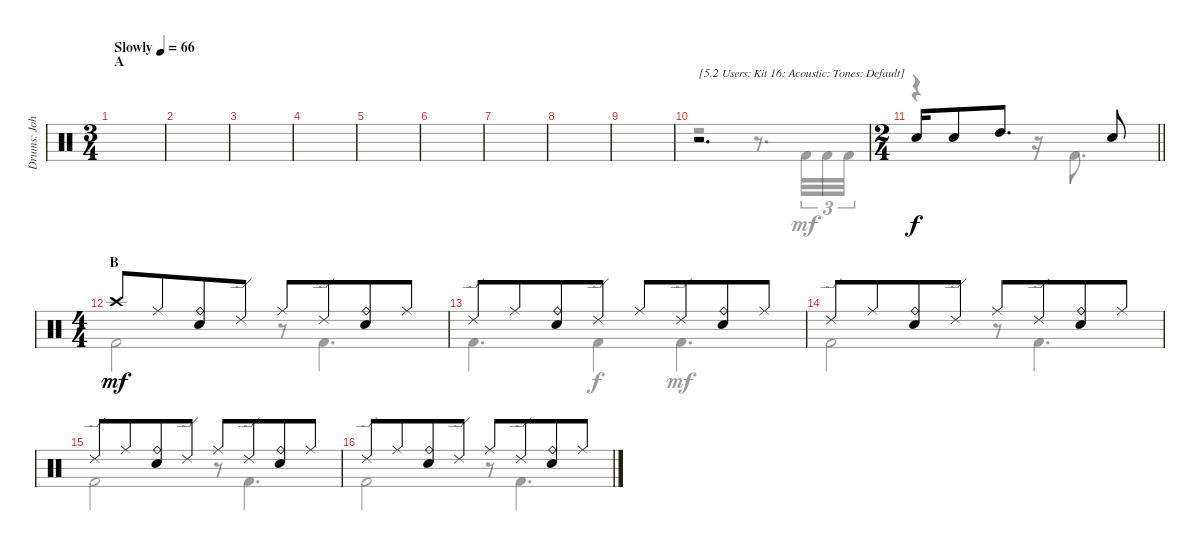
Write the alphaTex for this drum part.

\track ("Drums: John" "Drums: Joh") {instrument percussion}
\staff {score}
\articulation defaults
\voice
\ts (3 4)
\section ("" "A")
\tempo (66 "Slowly")
\clef neutral
\ks c
|
|
|
|
|
|
|
|
|
r.2{d txt "[5.2 Users: Kit 16: Acoustic: Tones: Default]"} |
\ts (2 4)
\barLineRight lightlight "Electric Snare (hit)".16 "Electric Snare (hit)".8 "High Tom (hit)".8{d} "Snare (hit) 2".8
|
\ts (4 4)
\section ("" "B")
"Crash high (hit)".8{dy mf} "Ride (middle)".8{beam merge} ("Ride (bell)" "Electric Snare (hit)").8 "Ride (edge) 2".8 "Ride (middle)".8 "Ride (edge) 2".8{beam merge} ("Ride (bell)" "Electric Snare (hit)").8 "Ride (middle)".8 |
"Ride (edge) 2".8 "Ride (middle)".8{beam merge} ("Ride (bell)" "Electric Snare (hit)").8 "Ride (edge) 2".8 "Ride (middle)".8 "Ride (edge) 2".8{beam merge} ("Ride (bell)" "Electric Snare (hit)").8 "Ride (middle)".8 |
"Ride (edge) 2".8 "Ride (middle)".8{beam merge} ("Ride (bell)" "Electric Snare (hit)").8 "Ride (edge) 2".8 "Ride (middle)".8 "Ride (edge) 2".8{beam merge} ("Ride (bell)" "Electric Snare (hit)").8 "Ride (middle)".8 |
"Ride (edge) 2".8 "Ride (middle)".8{beam merge} ("Ride (bell)" "Electric Snare (hit)").8 "Ride (edge) 2".8 "Ride (middle)".8 "Ride (edge) 2".8{beam merge} ("Ride (bell)" "Electric Snare (hit)").8 "Ride (middle)".8 |
"Ride (edge) 2".8 "Ride (middle)".8{beam merge} ("Ride (bell)" "Electric Snare (hit)").8 "Ride (edge) 2".8 "Ride (middle)".8 "Ride (edge) 2".8{beam merge} ("Ride (bell)" "Electric Snare (hit)").8 "Ride (middle)".8
\voice
\clef neutral
\ottava regular
\simile none
\ks c
|
|
|
|
|
|
|
|
|
r.2 r.8{d} "Kick (hit) 2".32{tu (3 2)} "Kick (hit) 2".32{tu (3 2)} "Kick (hit) 2".32{tu (3 2)} |
\barLineRight lightlight
r.4 r.16 "Kick (hit) 2".8{d} |
"Kick (hit) 2".2{dy mf} r.8 "Kick (hit) 2".4{d} |
"Kick (hit) 2".4{d} "Kick (hit) 2".4{dy f} "Kick (hit) 2".4{d dy mf} |
"Kick (hit) 2".2 r.8 "Kick (hit) 2".4{d} |
"Kick (hit) 2".2 r.8 "Kick (hit) 2".4{d} |
"Kick (hit) 2".2 r.8 "Kick (hit) 2".4{d}
